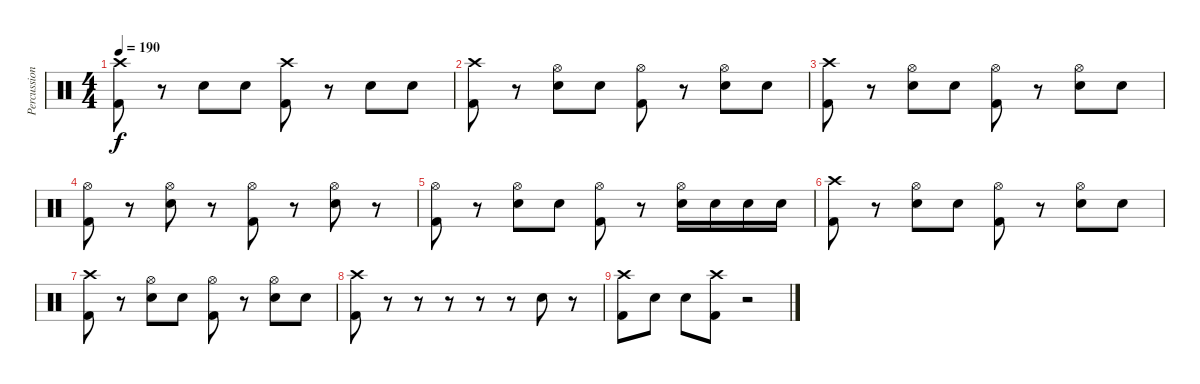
\track ("Percussioni" "Percussion") {instrument percussion}
\staff {score}
\articulation defaults
\ts (4 4)
\tempo 190
\clef neutral
\ks c
("Kick (hit) 2" "Crash high (hit)").8{dy f} r.8 "Electric Snare (hit)".8 "Electric Snare (hit)".8 ("Kick (hit) 2" "Crash high (hit)").8 r.8 "Electric Snare (hit)".8 "Electric Snare (hit)".8 |
("Kick (hit) 2" "Crash high (hit)").8 r.8 ("Electric Snare (hit)" "Hi-Hat (open)").8 "Electric Snare (hit)".8 ("Kick (hit) 2" "Hi-Hat (open)").8 r.8 ("Electric Snare (hit)" "Hi-Hat (open)").8 "Electric Snare (hit)".8 |
("Kick (hit) 2" "Crash high (hit)").8 r.8 ("Electric Snare (hit)" "Hi-Hat (open)").8 "Electric Snare (hit)".8 ("Kick (hit) 2" "Hi-Hat (open)").8 r.8 ("Electric Snare (hit)" "Hi-Hat (open)").8 "Electric Snare (hit)".8 |
("Kick (hit) 2" "Hi-Hat (open)").8 r.8 ("Electric Snare (hit)" "Hi-Hat (open)").8 r.8 ("Kick (hit) 2" "Hi-Hat (open)").8 r.8 ("Electric Snare (hit)" "Hi-Hat (open)").8 r.8 |
("Kick (hit) 2" "Hi-Hat (open)").8 r.8 ("Electric Snare (hit)" "Hi-Hat (open)").8 "Electric Snare (hit)".8 ("Kick (hit) 2" "Hi-Hat (open)").8 r.8 ("Electric Snare (hit)" "Hi-Hat (open)").16 "Electric Snare (hit)".16 "Electric Snare (hit)".16 "Electric Snare (hit)".16 |
("Kick (hit) 2" "Crash high (hit)").8 r.8 ("Electric Snare (hit)" "Hi-Hat (open)").8 "Electric Snare (hit)".8 ("Kick (hit) 2" "Hi-Hat (open)").8 r.8 ("Electric Snare (hit)" "Hi-Hat (open)").8 "Electric Snare (hit)".8 |
("Kick (hit) 2" "Crash high (hit)").8 r.8 ("Electric Snare (hit)" "Hi-Hat (open)").8 "Electric Snare (hit)".8 ("Kick (hit) 2" "Hi-Hat (open)").8 r.8 ("Electric Snare (hit)" "Hi-Hat (open)").8 "Electric Snare (hit)".8 |
("Crash high (hit)" "Kick (hit) 2").8 r.8 r.8 r.8 r.8 r.8 "Electric Snare (hit)".8 r.8 |
("Kick (hit) 2" "Crash high (hit)").8 "Electric Snare (hit)".8 "Electric Snare (hit)".8 ("Kick (hit) 2" "Crash high (hit)").8 r.2
